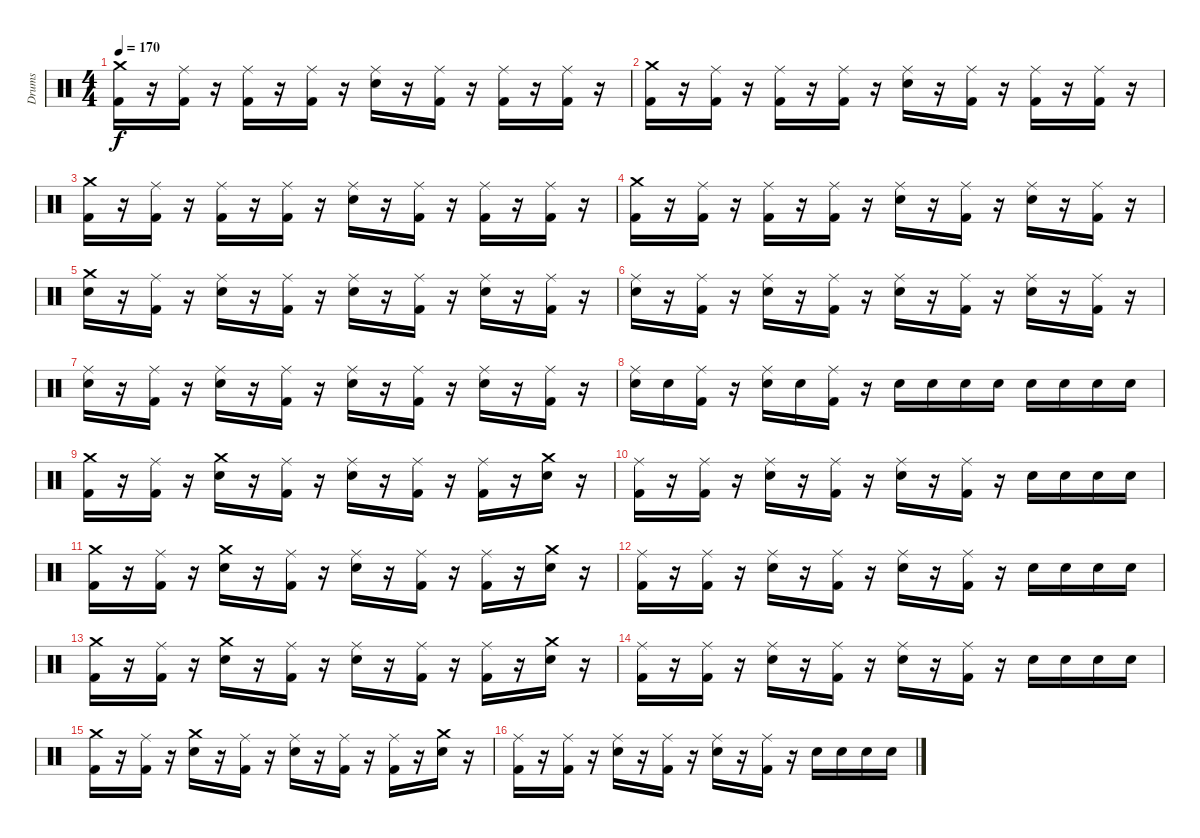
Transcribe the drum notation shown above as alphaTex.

\track ("Drums" "Drums") {instrument percussion}
\staff {score}
\articulation defaults
\ts (4 4)
\tempo 170
\clef neutral
\ks c
("Crash medium (hit)" "Kick (hit) 2").16{dy f} r.16 ("Ride (middle)" "Kick (hit) 2").16 r.16 ("Ride (middle)" "Kick (hit) 2").16 r.16 ("Ride (middle)" "Kick (hit) 2").16 r.16 ("Ride (middle)" "Snare (hit) 2").16 r.16 ("Ride (middle)" "Kick (hit) 2").16 r.16 ("Ride (middle)" "Kick (hit) 2").16 r.16 ("Ride (middle)" "Kick (hit) 2").16 r.16 |
("Crash medium (hit)" "Kick (hit) 2").16 r.16 ("Ride (middle)" "Kick (hit) 2").16 r.16 ("Ride (middle)" "Kick (hit) 2").16 r.16 ("Ride (middle)" "Kick (hit) 2").16 r.16 ("Ride (middle)" "Snare (hit) 2").16 r.16 ("Ride (middle)" "Kick (hit) 2").16 r.16 ("Ride (middle)" "Kick (hit) 2").16 r.16 ("Ride (middle)" "Kick (hit) 2").16 r.16 |
("Crash medium (hit)" "Kick (hit) 2").16 r.16 ("Ride (middle)" "Kick (hit) 2").16 r.16 ("Ride (middle)" "Kick (hit) 2").16 r.16 ("Ride (middle)" "Kick (hit) 2").16 r.16 ("Ride (middle)" "Snare (hit) 2").16 r.16 ("Ride (middle)" "Kick (hit) 2").16 r.16 ("Ride (middle)" "Kick (hit) 2").16 r.16 ("Ride (middle)" "Kick (hit) 2").16 r.16 |
("Crash medium (hit)" "Kick (hit) 2").16 r.16 ("Ride (middle)" "Kick (hit) 2").16 r.16 ("Ride (middle)" "Kick (hit) 2").16 r.16 ("Ride (middle)" "Kick (hit) 2").16 r.16 ("Ride (middle)" "Snare (hit) 2").16 r.16 ("Ride (middle)" "Kick (hit) 2").16 r.16 ("Ride (middle)" "Snare (hit) 2").16 r.16 ("Ride (middle)" "Kick (hit) 2").16 r.16 |
("Crash medium (hit)" "Snare (hit) 2").16 r.16 ("Ride (middle)" "Kick (hit) 2").16 r.16 ("Ride (middle)" "Snare (hit) 2").16 r.16 ("Ride (middle)" "Kick (hit) 2").16 r.16 ("Ride (middle)" "Snare (hit) 2").16 r.16 ("Ride (middle)" "Kick (hit) 2").16 r.16 ("Ride (middle)" "Snare (hit) 2").16 r.16 ("Ride (middle)" "Kick (hit) 2").16 r.16 |
("Ride (middle)" "Snare (hit) 2").16 r.16 ("Ride (middle)" "Kick (hit) 2").16 r.16 ("Ride (middle)" "Snare (hit) 2").16 r.16 ("Ride (middle)" "Kick (hit) 2").16 r.16 ("Ride (middle)" "Snare (hit) 2").16 r.16 ("Ride (middle)" "Kick (hit) 2").16 r.16 ("Ride (middle)" "Snare (hit) 2").16 r.16 ("Ride (middle)" "Kick (hit) 2").16 r.16 |
("Ride (middle)" "Snare (hit) 2").16 r.16 ("Ride (middle)" "Kick (hit) 2").16 r.16 ("Ride (middle)" "Snare (hit) 2").16 r.16 ("Ride (middle)" "Kick (hit) 2").16 r.16 ("Ride (middle)" "Snare (hit) 2").16 r.16 ("Ride (middle)" "Kick (hit) 2").16 r.16 ("Ride (middle)" "Snare (hit) 2").16 r.16 ("Ride (middle)" "Kick (hit) 2").16 r.16 |
("Ride (middle)" "Snare (hit) 2").16 "Snare (hit) 2".16 ("Ride (middle)" "Kick (hit) 2").16 r.16 ("Ride (middle)" "Snare (hit) 2").16 "Snare (hit) 2".16 ("Ride (middle)" "Kick (hit) 2").16 r.16 "Snare (hit) 2".16 "Snare (hit) 2".16 "Snare (hit) 2".16 "Snare (hit) 2".16 "Snare (hit) 2".16 "Snare (hit) 2".16 "Snare (hit) 2".16 "Snare (hit) 2".16 |
("Crash medium (hit)" "Kick (hit) 2").16 r.16 ("Ride (middle)" "Kick (hit) 2").16 r.16 ("Crash medium (hit)" "Snare (hit) 2").16 r.16 ("Ride (middle)" "Kick (hit) 2").16 r.16 ("Ride (middle)" "Snare (hit) 2").16 r.16 ("Ride (middle)" "Kick (hit) 2").16 r.16 ("Ride (middle)" "Kick (hit) 2").16 r.16 ("Crash medium (hit)" "Snare (hit) 2").16 r.16 |
("Ride (middle)" "Kick (hit) 2").16 r.16 ("Ride (middle)" "Kick (hit) 2").16 r.16 ("Ride (middle)" "Snare (hit) 2").16 r.16 ("Ride (middle)" "Kick (hit) 2").16 r.16 ("Ride (middle)" "Snare (hit) 2").16 r.16 ("Ride (middle)" "Kick (hit) 2").16 r.16 "Snare (hit) 2".16 "Snare (hit) 2".16 "Snare (hit) 2".16 "Snare (hit) 2".16 |
("Crash medium (hit)" "Kick (hit) 2").16 r.16 ("Ride (middle)" "Kick (hit) 2").16 r.16 ("Crash medium (hit)" "Snare (hit) 2").16 r.16 ("Ride (middle)" "Kick (hit) 2").16 r.16 ("Ride (middle)" "Snare (hit) 2").16 r.16 ("Ride (middle)" "Kick (hit) 2").16 r.16 ("Ride (middle)" "Kick (hit) 2").16 r.16 ("Crash medium (hit)" "Snare (hit) 2").16 r.16 |
("Ride (middle)" "Kick (hit) 2").16 r.16 ("Ride (middle)" "Kick (hit) 2").16 r.16 ("Ride (middle)" "Snare (hit) 2").16 r.16 ("Ride (middle)" "Kick (hit) 2").16 r.16 ("Ride (middle)" "Snare (hit) 2").16 r.16 ("Ride (middle)" "Kick (hit) 2").16 r.16 "Snare (hit) 2".16 "Snare (hit) 2".16 "Snare (hit) 2".16 "Snare (hit) 2".16 |
("Crash medium (hit)" "Kick (hit) 2").16 r.16 ("Ride (middle)" "Kick (hit) 2").16 r.16 ("Crash medium (hit)" "Snare (hit) 2").16 r.16 ("Ride (middle)" "Kick (hit) 2").16 r.16 ("Ride (middle)" "Snare (hit) 2").16 r.16 ("Ride (middle)" "Kick (hit) 2").16 r.16 ("Ride (middle)" "Kick (hit) 2").16 r.16 ("Crash medium (hit)" "Snare (hit) 2").16 r.16 |
("Ride (middle)" "Kick (hit) 2").16 r.16 ("Ride (middle)" "Kick (hit) 2").16 r.16 ("Ride (middle)" "Snare (hit) 2").16 r.16 ("Ride (middle)" "Kick (hit) 2").16 r.16 ("Ride (middle)" "Snare (hit) 2").16 r.16 ("Ride (middle)" "Kick (hit) 2").16 r.16 "Snare (hit) 2".16 "Snare (hit) 2".16 "Snare (hit) 2".16 "Snare (hit) 2".16 |
("Crash medium (hit)" "Kick (hit) 2").16 r.16 ("Ride (middle)" "Kick (hit) 2").16 r.16 ("Crash medium (hit)" "Snare (hit) 2").16 r.16 ("Ride (middle)" "Kick (hit) 2").16 r.16 ("Ride (middle)" "Snare (hit) 2").16 r.16 ("Ride (middle)" "Kick (hit) 2").16 r.16 ("Ride (middle)" "Kick (hit) 2").16 r.16 ("Crash medium (hit)" "Snare (hit) 2").16 r.16 |
("Ride (middle)" "Kick (hit) 2").16 r.16 ("Ride (middle)" "Kick (hit) 2").16 r.16 ("Ride (middle)" "Snare (hit) 2").16 r.16 ("Ride (middle)" "Kick (hit) 2").16 r.16 ("Ride (middle)" "Snare (hit) 2").16 r.16 ("Ride (middle)" "Kick (hit) 2").16 r.16 "Snare (hit) 2".16 "Snare (hit) 2".16 "Snare (hit) 2".16 "Snare (hit) 2".16
